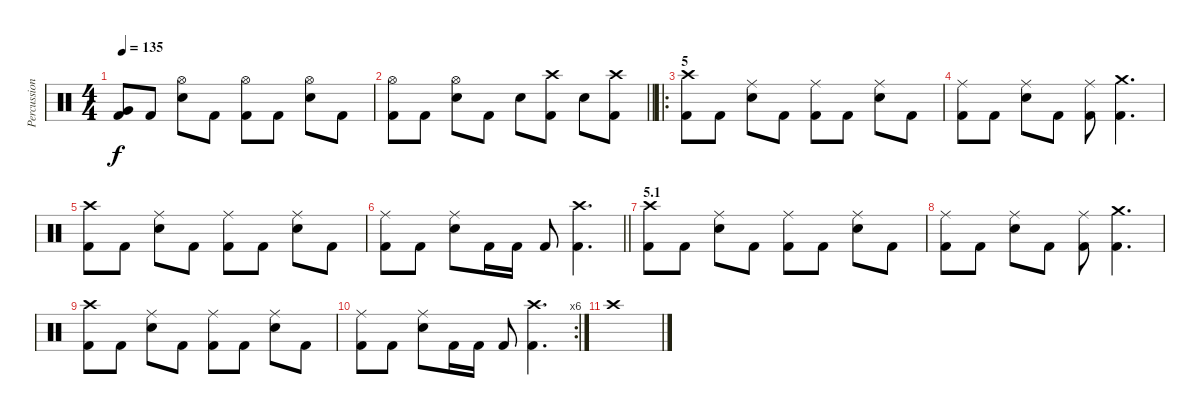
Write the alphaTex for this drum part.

\track ("Percussion" "Percussion") {instrument percussion}
\staff {score}
\articulation defaults
\ts (4 4)
\tempo 135
\clef neutral
\ks c
("Kick (hit) 2" "Very Low Tom (hit)").8{dy f} "Kick (hit) 2".8 ("Snare (hit) 2" "Hi-Hat (open)").8 "Kick (hit) 2".8 ("Kick (hit) 2" "Hi-Hat (open)").8 "Kick (hit) 2".8 ("Snare (hit) 2" "Hi-Hat (open)").8 "Kick (hit) 2".8 |
\barLineRight lightlight
("Kick (hit) 2" "Hi-Hat (open)").8 "Kick (hit) 2".8 ("Snare (hit) 2" "Hi-Hat (open)").8 "Kick (hit) 2".8 "Snare (hit) 2".8 ("Kick (hit) 2" "Crash high (hit)").8 "Snare (hit) 2".8 ("Kick (hit) 2" "Crash high (hit)").8 |
\ro
\section ("" "5")
("Kick (hit) 2" "Crash high (hit)").8 "Kick (hit) 2".8 ("Snare (hit) 2" "Ride (middle)").8 "Kick (hit) 2".8 ("Kick (hit) 2" "Ride (middle)").8 "Kick (hit) 2".8 ("Snare (hit) 2" "Ride (middle)").8 "Kick (hit) 2".8 |
("Kick (hit) 2" "Ride (middle)").8 "Kick (hit) 2".8 ("Snare (hit) 2" "Ride (middle)").8 "Kick (hit) 2".8 ("Kick (hit) 2" "Ride (middle)").8 ("Kick (hit) 2" "Crash medium (hit)").4{d} |
("Kick (hit) 2" "Crash high (hit)").8 "Kick (hit) 2".8 ("Snare (hit) 2" "Ride (middle)").8 "Kick (hit) 2".8 ("Kick (hit) 2" "Ride (middle)").8 "Kick (hit) 2".8 ("Snare (hit) 2" "Ride (middle)").8 "Kick (hit) 2".8 |
\barLineRight lightlight
("Kick (hit) 2" "Ride (middle)").8 "Kick (hit) 2".8 ("Snare (hit) 2" "Ride (middle)").8 "Kick (hit) 2".16 "Kick (hit) 2".16 "Kick (hit) 2".8 ("Kick (hit) 2" "Crash high (hit)").4{d} |
\section ("" "5.1")
("Kick (hit) 2" "Crash high (hit)").8 "Kick (hit) 2".8 ("Snare (hit) 2" "Ride (middle)").8 "Kick (hit) 2".8 ("Kick (hit) 2" "Ride (middle)").8 "Kick (hit) 2".8 ("Snare (hit) 2" "Ride (middle)").8 "Kick (hit) 2".8 |
("Kick (hit) 2" "Ride (middle)").8 "Kick (hit) 2".8 ("Snare (hit) 2" "Ride (middle)").8 "Kick (hit) 2".8 ("Kick (hit) 2" "Ride (middle)").8 ("Kick (hit) 2" "Crash medium (hit)").4{d} |
("Kick (hit) 2" "Crash high (hit)").8 "Kick (hit) 2".8 ("Snare (hit) 2" "Ride (middle)").8 "Kick (hit) 2".8 ("Kick (hit) 2" "Ride (middle)").8 "Kick (hit) 2".8 ("Snare (hit) 2" "Ride (middle)").8 "Kick (hit) 2".8 |
\rc 6
("Kick (hit) 2" "Ride (middle)").8 "Kick (hit) 2".8 ("Snare (hit) 2" "Ride (middle)").8 "Kick (hit) 2".16 "Kick (hit) 2".16 "Kick (hit) 2".8 ("Kick (hit) 2" "Crash high (hit)").4{d} |
"Crash high (hit)".1
